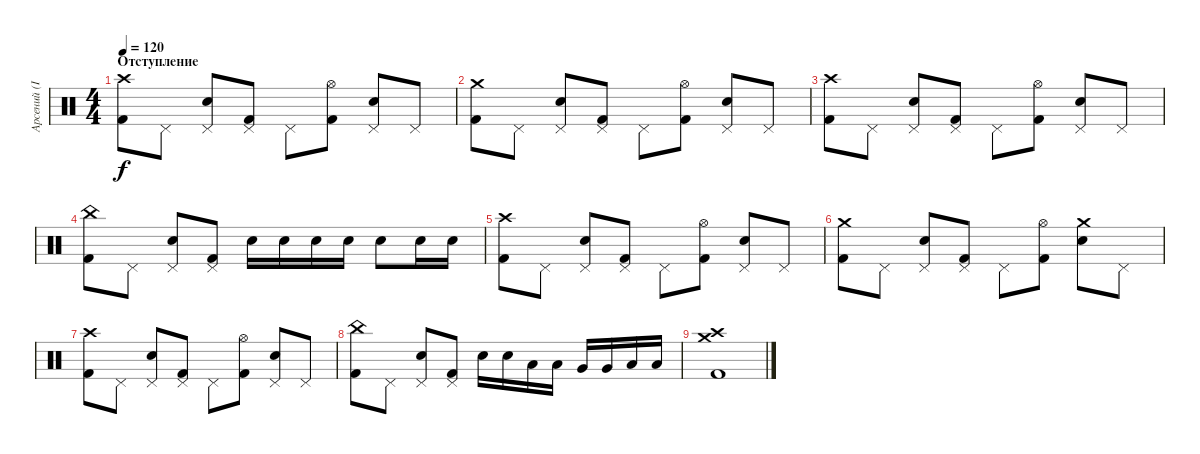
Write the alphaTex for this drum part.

\track ("Арсений (Idler) Ударные" "Арсений (I") {instrument percussion}
\staff {score}
\articulation defaults
\ts (4 4)
\section ("" "Отступление")
\tempo 120
\clef neutral
\ks c
("Crash high (hit)" "Kick (hit) 2").8{dy f} "Pedal Hi-Hat (hit)".8 ("Pedal Hi-Hat (hit)" "Snare (hit) 2").8 ("Pedal Hi-Hat (hit)" "Kick (hit) 2").8 "Pedal Hi-Hat (hit)".8 ("Hi-Hat (open)" "Kick (hit) 2").8 ("Pedal Hi-Hat (hit)" "Snare (hit) 2").8 "Pedal Hi-Hat (hit)".8 |
("Crash medium (hit)" "Kick (hit) 2").8 "Pedal Hi-Hat (hit)".8 ("Pedal Hi-Hat (hit)" "Snare (hit) 2").8 ("Pedal Hi-Hat (hit)" "Kick (hit) 2").8 "Pedal Hi-Hat (hit)".8 ("Hi-Hat (open)" "Kick (hit) 2").8 ("Pedal Hi-Hat (hit)" "Snare (hit) 2").8 "Pedal Hi-Hat (hit)".8 |
("Crash high (hit)" "Kick (hit) 2").8 "Pedal Hi-Hat (hit)".8 ("Pedal Hi-Hat (hit)" "Snare (hit) 2").8 ("Pedal Hi-Hat (hit)" "Kick (hit) 2").8 "Pedal Hi-Hat (hit)".8 ("Hi-Hat (open)" "Kick (hit) 2").8 ("Pedal Hi-Hat (hit)" "Snare (hit) 2").8 "Pedal Hi-Hat (hit)".8 |
("China (hit)" "Kick (hit) 2").8 "Pedal Hi-Hat (hit)".8 ("Pedal Hi-Hat (hit)" "Snare (hit) 2").8 ("Pedal Hi-Hat (hit)" "Kick (hit) 2").8 "Snare (hit) 2".16 "Snare (hit) 2".16 "Snare (hit) 2".16 "Snare (hit) 2".16 "Snare (hit) 2".8 "Snare (hit) 2".16 "Snare (hit) 2".16 |
("Crash high (hit)" "Kick (hit) 2").8 "Pedal Hi-Hat (hit)".8 ("Pedal Hi-Hat (hit)" "Snare (hit) 2").8 ("Pedal Hi-Hat (hit)" "Kick (hit) 2").8 "Pedal Hi-Hat (hit)".8 ("Hi-Hat (open)" "Kick (hit) 2").8 ("Pedal Hi-Hat (hit)" "Snare (hit) 2").8 "Pedal Hi-Hat (hit)".8 |
("Crash medium (hit)" "Kick (hit) 2").8 "Pedal Hi-Hat (hit)".8 ("Pedal Hi-Hat (hit)" "Snare (hit) 2").8 ("Pedal Hi-Hat (hit)" "Kick (hit) 2").8 "Pedal Hi-Hat (hit)".8 ("Hi-Hat (open)" "Kick (hit) 2").8 ("Crash medium (hit)" "Snare (hit) 2").8 "Pedal Hi-Hat (hit)".8 |
("Crash high (hit)" "Kick (hit) 2").8 "Pedal Hi-Hat (hit)".8 ("Pedal Hi-Hat (hit)" "Snare (hit) 2").8 ("Pedal Hi-Hat (hit)" "Kick (hit) 2").8 "Pedal Hi-Hat (hit)".8 ("Hi-Hat (open)" "Kick (hit) 2").8 ("Pedal Hi-Hat (hit)" "Snare (hit) 2").8 "Pedal Hi-Hat (hit)".8 |
("China (hit)" "Kick (hit) 2").8 "Pedal Hi-Hat (hit)".8 ("Pedal Hi-Hat (hit)" "Snare (hit) 2").8 ("Pedal Hi-Hat (hit)" "Kick (hit) 2").8 "Snare (hit) 2".16 "Snare (hit) 2".16 "Low Tom (hit)".16 "Low Tom (hit)".16 "Very Low Tom (hit)".16 "Very Low Tom (hit)".16 "Low Floor Tom (hit)".16 "Low Floor Tom (hit)".16 |
("Crash medium (hit)" "Crash high (hit)" "Kick (hit) 2").1
